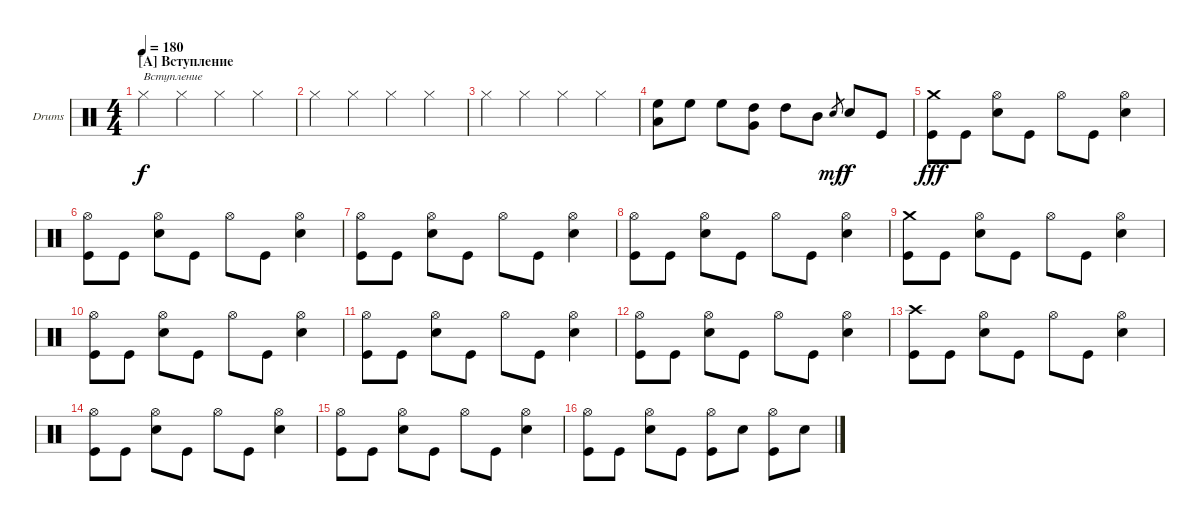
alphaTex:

\defaultSystemsLayout 4
\bracketExtendMode groupsimilarinstruments
\firstSystemTrackNameOrientation horizontal
\otherSystemsTrackNameOrientation horizontal
\track ("Барабаны" "Drums") {instrument percussion}
\staff {score}
\articulation defaults
\ts (4 4)
\section ("A" "Вступление")
\tempo 180
\clef neutral
\scale
0.472222
\ks c "Hi-Hat (closed)".4{txt "Вступление" dy f} "Hi-Hat (closed)".4 "Hi-Hat (closed)".4 "Hi-Hat (closed)".4
|
\scale
0.263889 "Hi-Hat (closed)".4 "Hi-Hat (closed)".4 "Hi-Hat (closed)".4 "Hi-Hat (closed)".4 |
\scale
0.263889 "Hi-Hat (closed)".4 "Hi-Hat (closed)".4 "Hi-Hat (closed)".4 "Hi-Hat (closed)".4 |
\scale
0.333333 ("High Floor Tom (hit)" "Low Tom (hit)").8 "High Floor Tom (hit)".8 "High Floor Tom (hit)".8 ("High Tom (hit)" "Very Low Tom (hit)").8 "High Tom (hit)".8 "Mid Tom (hit)".8 "Snare (hit) 2".8{gr dy mf} "Snare (hit) 2".8{dy f} "Kick (hit)".8 |
\scale
0.333333 ("Crash medium (hit)" "Kick (hit)").8{dy fff} "Kick (hit)".8 ("Hi-Hat (open)" "Snare (hit) 2").8 "Kick (hit)".8 "Hi-Hat (open)".8 "Kick (hit)".8 ("Hi-Hat (open)" "Snare (hit) 2").4 |
\scale
0.333333 ("Hi-Hat (open)" "Kick (hit)").8 "Kick (hit)".8 ("Hi-Hat (open)" "Snare (hit) 2").8 "Kick (hit)".8 "Hi-Hat (open)".8 "Kick (hit)".8 ("Hi-Hat (open)" "Snare (hit) 2").4 |
\scale
0.333333 ("Hi-Hat (open)" "Kick (hit)").8 "Kick (hit)".8 ("Hi-Hat (open)" "Snare (hit) 2").8 "Kick (hit)".8 "Hi-Hat (open)".8 "Kick (hit)".8 ("Hi-Hat (open)" "Snare (hit) 2").4 |
\scale
0.333333 ("Hi-Hat (open)" "Kick (hit)").8 "Kick (hit)".8 ("Hi-Hat (open)" "Snare (hit) 2").8 "Kick (hit)".8 "Hi-Hat (open)".8 "Kick (hit)".8 ("Hi-Hat (open)" "Snare (hit) 2").4 |
\scale
0.333333 ("Crash medium (hit)" "Kick (hit)").8 "Kick (hit)".8 ("Hi-Hat (open)" "Snare (hit) 2").8 "Kick (hit)".8 "Hi-Hat (open)".8 "Kick (hit)".8 ("Hi-Hat (open)" "Snare (hit) 2").4 |
\scale
0.333333 ("Hi-Hat (open)" "Kick (hit)").8 "Kick (hit)".8 ("Hi-Hat (open)" "Snare (hit) 2").8 "Kick (hit)".8 "Hi-Hat (open)".8 "Kick (hit)".8 ("Hi-Hat (open)" "Snare (hit) 2").4 |
\scale
0.333333 ("Hi-Hat (open)" "Kick (hit)").8 "Kick (hit)".8 ("Hi-Hat (open)" "Snare (hit) 2").8 "Kick (hit)".8 "Hi-Hat (open)".8 "Kick (hit)".8 ("Hi-Hat (open)" "Snare (hit) 2").4 |
\scale
0.333333 ("Hi-Hat (open)" "Kick (hit)").8 "Kick (hit)".8 ("Hi-Hat (open)" "Snare (hit) 2").8 "Kick (hit)".8 "Hi-Hat (open)".8 "Kick (hit)".8 ("Hi-Hat (open)" "Snare (hit) 2").4 |
\scale
0.333333 ("Crash high (hit)" "Kick (hit)").8 "Kick (hit)".8 ("Hi-Hat (open)" "Snare (hit) 2").8 "Kick (hit)".8 "Hi-Hat (open)".8 "Kick (hit)".8 ("Hi-Hat (open)" "Snare (hit) 2").4 |
\scale
0.333333 ("Hi-Hat (open)" "Kick (hit)").8 "Kick (hit)".8 ("Hi-Hat (open)" "Snare (hit) 2").8 "Kick (hit)".8 "Hi-Hat (open)".8 "Kick (hit)".8 ("Hi-Hat (open)" "Snare (hit) 2").4 |
\scale
0.333333 ("Hi-Hat (open)" "Kick (hit)").8 "Kick (hit)".8 ("Hi-Hat (open)" "Snare (hit) 2").8 "Kick (hit)".8 "Hi-Hat (open)".8 "Kick (hit)".8 ("Hi-Hat (open)" "Snare (hit) 2").4 |
\scale
0.333333 ("Hi-Hat (open)" "Kick (hit)").8 "Kick (hit)".8 ("Hi-Hat (open)" "Snare (hit) 2").8 "Kick (hit)".8 ("Hi-Hat (open)" "Kick (hit)").8 "Snare (hit) 2".8 ("Hi-Hat (open)" "Kick (hit)").8 "Snare (hit) 2".8
